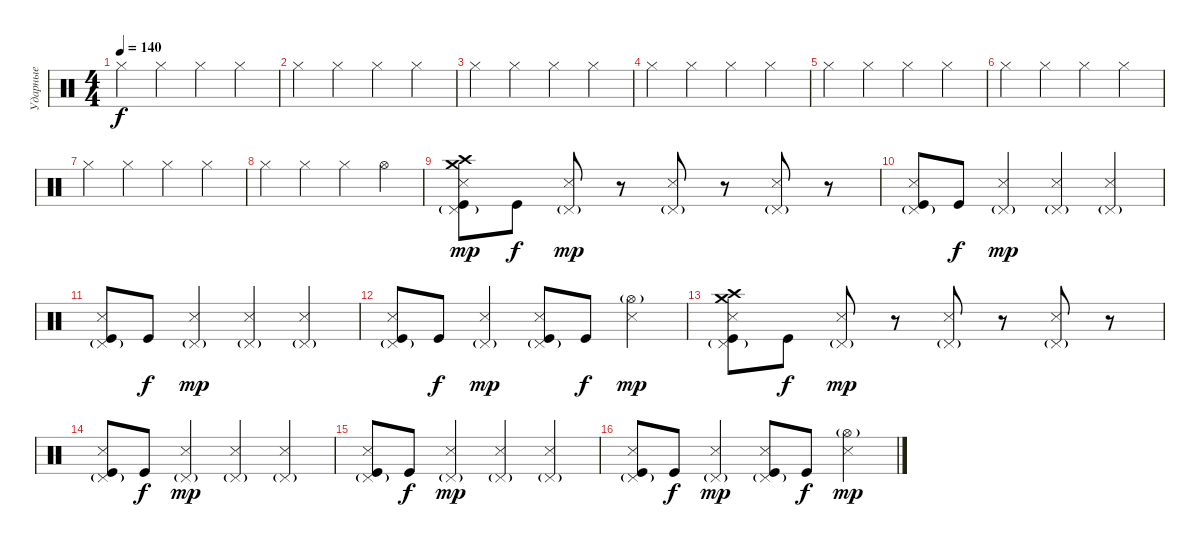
\track ("Ударные" "Ударные") {instrument percussion}
\staff {score}
\articulation defaults
\ts (4 4)
\tempo 140
\clef neutral
\ks c "Hi-Hat (closed)".4{dy f} "Hi-Hat (closed)".4 "Hi-Hat (closed)".4 "Hi-Hat (closed)".4
|
"Hi-Hat (closed)".4 "Hi-Hat (closed)".4 "Hi-Hat (closed)".4 "Hi-Hat (closed)".4 |
"Hi-Hat (closed)".4 "Hi-Hat (closed)".4 "Hi-Hat (closed)".4 "Hi-Hat (closed)".4 |
"Hi-Hat (closed)".4 "Hi-Hat (closed)".4 "Hi-Hat (closed)".4 "Hi-Hat (closed)".4 |
"Hi-Hat (closed)".4 "Hi-Hat (closed)".4 "Hi-Hat (closed)".4 "Hi-Hat (closed)".4 |
"Hi-Hat (closed)".4 "Hi-Hat (closed)".4 "Hi-Hat (closed)".4 "Hi-Hat (closed)".4 |
"Hi-Hat (closed)".4 "Hi-Hat (closed)".4 "Hi-Hat (closed)".4 "Hi-Hat (closed)".4 |
"Hi-Hat (closed)".4 "Hi-Hat (closed)".4 "Hi-Hat (closed)".4 "Hi-Hat (open)".4 |
("Crash high (hit)" "Crash medium (hit)" "Pedal Hi-Hat (hit)"{g} "Snare (side stick) 3" "Kick (hit)").8{dy mp} "Kick (hit)".8{dy f} ("Pedal Hi-Hat (hit)"{g} "Snare (side stick) 3").8{dy mp} r.8 ("Pedal Hi-Hat (hit)"{g} "Snare (side stick) 3").8 r.8 ("Pedal Hi-Hat (hit)"{g} "Snare (side stick) 3").8 r.8 |
("Pedal Hi-Hat (hit)"{g} "Kick (hit)" "Snare (side stick) 3").8 "Kick (hit)".8{dy f} ("Pedal Hi-Hat (hit)"{g} "Snare (side stick) 3").4{dy mp} ("Pedal Hi-Hat (hit)"{g} "Snare (side stick) 3").4 ("Pedal Hi-Hat (hit)"{g} "Snare (side stick) 3").4 |
("Pedal Hi-Hat (hit)"{g} "Snare (side stick) 3" "Kick (hit)").8 "Kick (hit)".8{dy f} ("Pedal Hi-Hat (hit)"{g} "Snare (side stick) 3").4{dy mp} ("Pedal Hi-Hat (hit)"{g} "Snare (side stick) 3").4 ("Pedal Hi-Hat (hit)"{g} "Snare (side stick) 3").4 |
("Pedal Hi-Hat (hit)"{g} "Kick (hit)" "Snare (side stick) 3").8 "Kick (hit)".8{dy f} ("Pedal Hi-Hat (hit)"{g} "Snare (side stick) 3").4{dy mp} ("Pedal Hi-Hat (hit)"{g} "Kick (hit)" "Snare (side stick) 3").8 "Kick (hit)".8{dy f} ("Hi-Hat (open)"{g} "Snare (side stick) 3").4{dy mp} |
("Crash high (hit)" "Crash medium (hit)" "Pedal Hi-Hat (hit)"{g} "Snare (side stick) 3" "Kick (hit)").8 "Kick (hit)".8{dy f} ("Pedal Hi-Hat (hit)"{g} "Snare (side stick) 3").8{dy mp} r.8 ("Pedal Hi-Hat (hit)"{g} "Snare (side stick) 3").8 r.8 ("Pedal Hi-Hat (hit)"{g} "Snare (side stick) 3").8 r.8 |
("Pedal Hi-Hat (hit)"{g} "Kick (hit)" "Snare (side stick) 3").8 "Kick (hit)".8{dy f} ("Pedal Hi-Hat (hit)"{g} "Snare (side stick) 3").4{dy mp} ("Pedal Hi-Hat (hit)"{g} "Snare (side stick) 3").4 ("Pedal Hi-Hat (hit)"{g} "Snare (side stick) 3").4 |
("Pedal Hi-Hat (hit)"{g} "Snare (side stick) 3" "Kick (hit)").8 "Kick (hit)".8{dy f} ("Pedal Hi-Hat (hit)"{g} "Snare (side stick) 3").4{dy mp} ("Pedal Hi-Hat (hit)"{g} "Snare (side stick) 3").4 ("Pedal Hi-Hat (hit)"{g} "Snare (side stick) 3").4 |
("Pedal Hi-Hat (hit)"{g} "Kick (hit)" "Snare (side stick) 3").8 "Kick (hit)".8{dy f} ("Pedal Hi-Hat (hit)"{g} "Snare (side stick) 3").4{dy mp} ("Pedal Hi-Hat (hit)"{g} "Kick (hit)" "Snare (side stick) 3").8 "Kick (hit)".8{dy f} ("Hi-Hat (open)"{g} "Snare (side stick) 3").4{dy mp}
